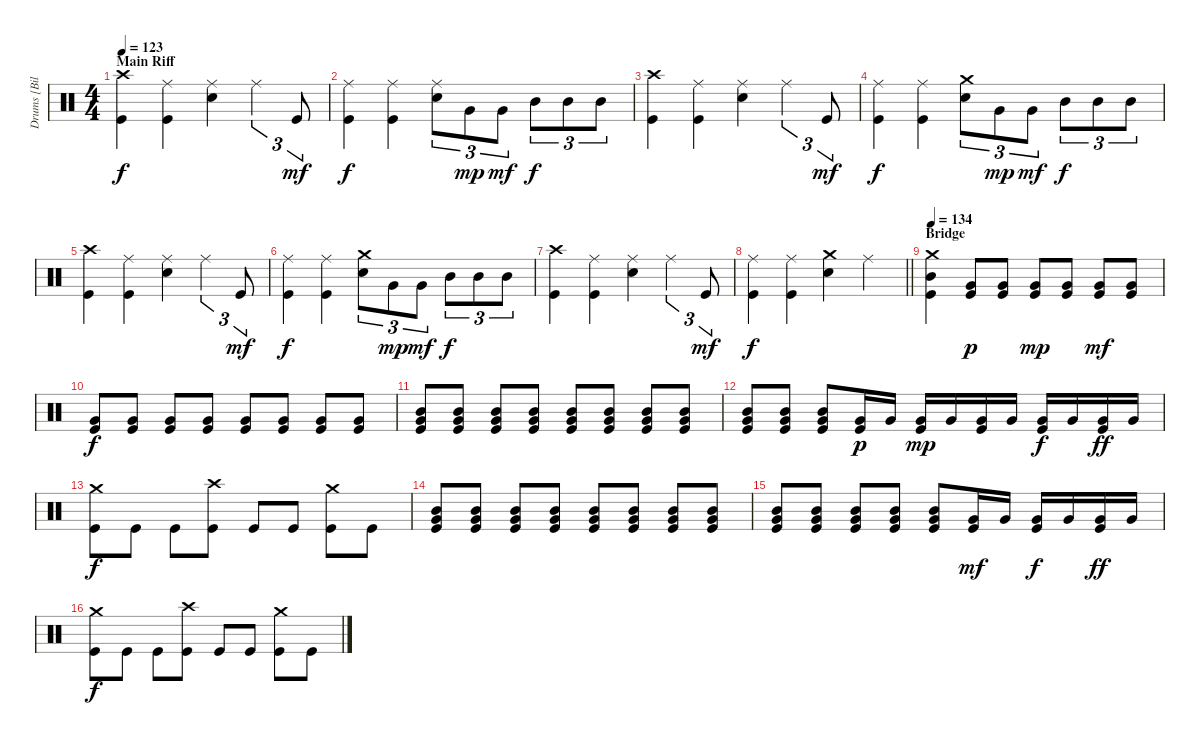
\track ("Drums [Bill Ward]" "Drums [Bil") {instrument percussion}
\staff {score}
\articulation defaults
\ts (4 4)
\section ("" "Main Riff")
\tempo 123
\clef neutral
\ks c
("Crash high (hit)" "Kick (hit)").4{dy f} ("Ride (middle)" "Kick (hit)").4 ("Ride (middle)" "Electric Snare (hit)").4 "Ride (middle)".4{tu (3 2)} "Kick (hit)".8{tu (3 2) dy mf} |
("Ride (middle)" "Kick (hit)").4{dy f} ("Ride (middle)" "Kick (hit)").4 ("Ride (middle)" "Electric Snare (hit)").8{tu (3 2)} "Very Low Tom (hit)".8{tu (3 2) dy mp} "Very Low Tom (hit)".8{tu (3 2) dy mf} "Mid Tom (hit)".8{tu (3 2) dy f} "Mid Tom (hit)".8{tu (3 2)} "Mid Tom (hit)".8{tu (3 2)} |
("Crash high (hit)" "Kick (hit)").4 ("Ride (middle)" "Kick (hit)").4 ("Ride (middle)" "Electric Snare (hit)").4 "Ride (middle)".4{tu (3 2)} "Kick (hit)".8{tu (3 2) dy mf} |
("Ride (middle)" "Kick (hit)").4{dy f} ("Ride (middle)" "Kick (hit)").4 ("Crash medium (hit)" "Electric Snare (hit)").8{tu (3 2)} "Very Low Tom (hit)".8{tu (3 2) dy mp} "Very Low Tom (hit)".8{tu (3 2) dy mf} "Mid Tom (hit)".8{tu (3 2) dy f} "Mid Tom (hit)".8{tu (3 2)} "Mid Tom (hit)".8{tu (3 2)} |
("Crash high (hit)" "Kick (hit)").4 ("Ride (middle)" "Kick (hit)").4 ("Ride (middle)" "Electric Snare (hit)").4 "Ride (middle)".4{tu (3 2)} "Kick (hit)".8{tu (3 2) dy mf} |
("Ride (middle)" "Kick (hit)").4{dy f} ("Ride (middle)" "Kick (hit)").4 ("Crash medium (hit)" "Electric Snare (hit)").8{tu (3 2)} "Very Low Tom (hit)".8{tu (3 2) dy mp} "Very Low Tom (hit)".8{tu (3 2) dy mf} "Mid Tom (hit)".8{tu (3 2) dy f} "Mid Tom (hit)".8{tu (3 2)} "Mid Tom (hit)".8{tu (3 2)} |
("Crash high (hit)" "Kick (hit)").4 ("Ride (middle)" "Kick (hit)").4 ("Ride (middle)" "Electric Snare (hit)").4 "Ride (middle)".4{tu (3 2)} "Kick (hit)".8{tu (3 2) dy mf} |
\barLineRight lightlight
("Ride (middle)" "Kick (hit)").4{dy f} ("Ride (middle)" "Kick (hit)").4 ("Crash medium (hit)" "Electric Snare (hit)").4 "Ride (middle)".4 |
\section ("" "Bridge")
\tempo 134
("Crash medium (hit)" "Mid Tom (hit)" "Kick (hit)").4 ("Very Low Tom (hit)" "Kick (hit)").8{dy p} ("Very Low Tom (hit)" "Kick (hit)").8 ("Very Low Tom (hit)" "Kick (hit)").8{dy mp} ("Very Low Tom (hit)" "Kick (hit)").8 ("Very Low Tom (hit)" "Kick (hit)").8{dy mf} ("Very Low Tom (hit)" "Kick (hit)").8 |
("Very Low Tom (hit)" "Kick (hit)").8{dy f} ("Very Low Tom (hit)" "Kick (hit)").8 ("Very Low Tom (hit)" "Kick (hit)").8 ("Very Low Tom (hit)" "Kick (hit)").8 ("Very Low Tom (hit)" "Kick (hit)").8 ("Very Low Tom (hit)" "Kick (hit)").8 ("Very Low Tom (hit)" "Kick (hit)").8 ("Very Low Tom (hit)" "Kick (hit)").8 |
("Mid Tom (hit)" "Very Low Tom (hit)" "Kick (hit)").8 ("Mid Tom (hit)" "Very Low Tom (hit)" "Kick (hit)").8 ("Mid Tom (hit)" "Very Low Tom (hit)" "Kick (hit)").8 ("Mid Tom (hit)" "Very Low Tom (hit)" "Kick (hit)").8 ("Mid Tom (hit)" "Very Low Tom (hit)" "Kick (hit)").8 ("Mid Tom (hit)" "Very Low Tom (hit)" "Kick (hit)").8 ("Mid Tom (hit)" "Very Low Tom (hit)" "Kick (hit)").8 ("Mid Tom (hit)" "Very Low Tom (hit)" "Kick (hit)").8 |
("Mid Tom (hit)" "Very Low Tom (hit)" "Kick (hit)").8 ("Mid Tom (hit)" "Very Low Tom (hit)" "Kick (hit)").8 ("Mid Tom (hit)" "Very Low Tom (hit)" "Kick (hit)").8 ("Very Low Tom (hit)" "Kick (hit)").16{dy p} "Very Low Tom (hit)".16 ("Very Low Tom (hit)" "Kick (hit)").16{dy mp} "Very Low Tom (hit)".16 ("Very Low Tom (hit)" "Kick (hit)").16 "Very Low Tom (hit)".16 ("Very Low Tom (hit)" "Kick (hit)").16{dy f} "Very Low Tom (hit)".16 ("Very Low Tom (hit)" "Kick (hit)").16{dy ff} "Very Low Tom (hit)".16 |
("Crash medium (hit)" "Kick (hit)").8{dy f} "Kick (hit)".8 "Kick (hit)".8 ("Crash high (hit)" "Kick (hit)").8 "Kick (hit)".8 "Kick (hit)".8 ("Crash medium (hit)" "Kick (hit)").8 "Kick (hit)".8 |
("Mid Tom (hit)" "Very Low Tom (hit)" "Kick (hit)").8 ("Mid Tom (hit)" "Very Low Tom (hit)" "Kick (hit)").8 ("Mid Tom (hit)" "Very Low Tom (hit)" "Kick (hit)").8 ("Mid Tom (hit)" "Very Low Tom (hit)" "Kick (hit)").8 ("Mid Tom (hit)" "Very Low Tom (hit)" "Kick (hit)").8 ("Mid Tom (hit)" "Very Low Tom (hit)" "Kick (hit)").8 ("Mid Tom (hit)" "Very Low Tom (hit)" "Kick (hit)").8 ("Mid Tom (hit)" "Very Low Tom (hit)" "Kick (hit)").8 |
("Mid Tom (hit)" "Very Low Tom (hit)" "Kick (hit)").8 ("Mid Tom (hit)" "Very Low Tom (hit)" "Kick (hit)").8 ("Mid Tom (hit)" "Very Low Tom (hit)" "Kick (hit)").8 ("Mid Tom (hit)" "Very Low Tom (hit)" "Kick (hit)").8 ("Mid Tom (hit)" "Very Low Tom (hit)" "Kick (hit)").8 ("Very Low Tom (hit)" "Kick (hit)").16{dy mf} "Very Low Tom (hit)".16 ("Very Low Tom (hit)" "Kick (hit)").16{dy f} "Very Low Tom (hit)".16 ("Very Low Tom (hit)" "Kick (hit)").16{dy ff} "Very Low Tom (hit)".16 |
("Crash medium (hit)" "Kick (hit)").8{dy f} "Kick (hit)".8 "Kick (hit)".8 ("Crash high (hit)" "Kick (hit)").8 "Kick (hit)".8 "Kick (hit)".8 ("Crash medium (hit)" "Kick (hit)").8 "Kick (hit)".8
